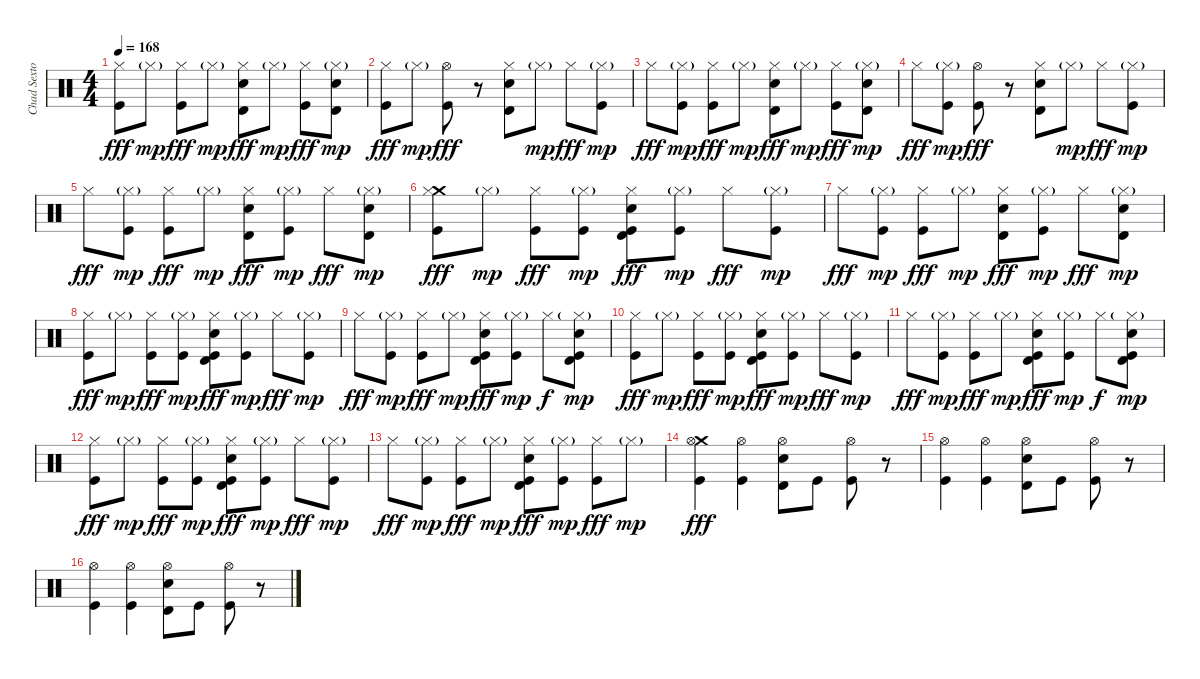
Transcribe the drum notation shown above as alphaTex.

\track ("Chad Sexton" "Chad Sexto") {instrument percussion}
\staff {score}
\articulation defaults
\ts (4 4)
\tempo 168
\clef neutral
\ks c
("Kick (hit)" "Hi-Hat (closed)").8{dy fff} "Hi-Hat (closed)"{g}.8{dy mp} ("Kick (hit)" "Hi-Hat (closed)").8{dy fff} "Hi-Hat (closed)"{g}.8{dy mp} ("Electric Snare (hit)" "Timbale high (hit)" "Hi-Hat (closed)").8{dy fff} "Hi-Hat (closed)"{g}.8{dy mp} ("Kick (hit)" "Hi-Hat (closed)").8{dy fff} ("Timbale high (hit)" "Electric Snare (hit)" "Hi-Hat (closed)"{g}).8{dy mp} |
("Kick (hit)" "Hi-Hat (closed)").8{dy fff} "Hi-Hat (closed)"{g}.8{dy mp} ("Kick (hit)" "Hi-Hat (open)").8{dy fff} r.8 ("Electric Snare (hit)" "Timbale high (hit)" "Hi-Hat (closed)").8 "Hi-Hat (closed)"{g}.8{dy mp} "Hi-Hat (closed)".8{dy fff} ("Kick (hit)" "Hi-Hat (closed)"{g}).8{dy mp} |
"Hi-Hat (closed)".8{dy fff} ("Kick (hit)" "Hi-Hat (closed)"{g}).8{dy mp} ("Kick (hit)" "Hi-Hat (closed)").8{dy fff} "Hi-Hat (closed)"{g}.8{dy mp} ("Electric Snare (hit)" "Timbale high (hit)" "Hi-Hat (closed)").8{dy fff} "Hi-Hat (closed)"{g}.8{dy mp} ("Kick (hit)" "Hi-Hat (closed)").8{dy fff} ("Timbale high (hit)" "Electric Snare (hit)" "Hi-Hat (closed)"{g}).8{dy mp} |
"Hi-Hat (closed)".8{dy fff} ("Kick (hit)" "Hi-Hat (closed)"{g}).8{dy mp} ("Kick (hit)" "Hi-Hat (open)").8{dy fff} r.8 ("Electric Snare (hit)" "Timbale high (hit)" "Hi-Hat (closed)").8 "Hi-Hat (closed)"{g}.8{dy mp} "Hi-Hat (closed)".8{dy fff} ("Kick (hit)" "Hi-Hat (closed)"{g}).8{dy mp} |
"Hi-Hat (closed)".8{dy fff} ("Kick (hit)" "Hi-Hat (closed)"{g}).8{dy mp} ("Kick (hit)" "Hi-Hat (closed)").8{dy fff} "Hi-Hat (closed)"{g}.8{dy mp} ("Electric Snare (hit)" "Timbale high (hit)" "Hi-Hat (closed)").8{dy fff} ("Kick (hit)" "Hi-Hat (closed)"{g}).8{dy mp} "Hi-Hat (closed)".8{dy fff} ("Timbale high (hit)" "Electric Snare (hit)" "Hi-Hat (closed)"{g}).8{dy mp} |
("Crash medium (hit)" "Kick (hit)" "Hi-Hat (closed)").8{dy fff} "Hi-Hat (closed)"{g}.8{dy mp} ("Kick (hit)" "Hi-Hat (closed)").8{dy fff} ("Kick (hit)" "Hi-Hat (closed)"{g}).8{dy mp} ("Timbale high (hit)" "Electric Snare (hit)" "Kick (hit)" "Hi-Hat (closed)").8{dy fff} ("Kick (hit)" "Hi-Hat (closed)"{g}).8{dy mp} "Hi-Hat (closed)".8{dy fff} ("Kick (hit)" "Hi-Hat (closed)"{g}).8{dy mp} |
"Hi-Hat (closed)".8{dy fff} ("Kick (hit)" "Hi-Hat (closed)"{g}).8{dy mp} ("Kick (hit)" "Hi-Hat (closed)").8{dy fff} "Hi-Hat (closed)"{g}.8{dy mp} ("Electric Snare (hit)" "Timbale high (hit)" "Hi-Hat (closed)").8{dy fff} ("Kick (hit)" "Hi-Hat (closed)"{g}).8{dy mp} "Hi-Hat (closed)".8{dy fff} ("Timbale high (hit)" "Electric Snare (hit)" "Hi-Hat (closed)"{g}).8{dy mp} |
("Kick (hit)" "Hi-Hat (closed)").8{dy fff} "Hi-Hat (closed)"{g}.8{dy mp} ("Kick (hit)" "Hi-Hat (closed)").8{dy fff} ("Kick (hit)" "Hi-Hat (closed)"{g}).8{dy mp} ("Timbale high (hit)" "Electric Snare (hit)" "Kick (hit)" "Hi-Hat (closed)").8{dy fff} ("Kick (hit)" "Hi-Hat (closed)"{g}).8{dy mp} "Hi-Hat (closed)".8{dy fff} ("Kick (hit)" "Hi-Hat (closed)"{g}).8{dy mp} |
"Hi-Hat (closed)".8{dy fff} ("Kick (hit)" "Hi-Hat (closed)"{g}).8{dy mp} ("Kick (hit)" "Hi-Hat (closed)").8{dy fff} "Hi-Hat (closed)"{g}.8{dy mp} ("Timbale high (hit)" "Electric Snare (hit)" "Kick (hit)" "Hi-Hat (closed)").8{dy fff} ("Kick (hit)" "Hi-Hat (closed)"{g}).8{dy mp} "Hi-Hat (closed)".8{dy f} ("Timbale high (hit)" "Electric Snare (hit)" "Kick (hit)" "Hi-Hat (closed)"{g}).8{dy mp} |
("Kick (hit)" "Hi-Hat (closed)").8{dy fff} "Hi-Hat (closed)"{g}.8{dy mp} ("Kick (hit)" "Hi-Hat (closed)").8{dy fff} ("Kick (hit)" "Hi-Hat (closed)"{g}).8{dy mp} ("Timbale high (hit)" "Electric Snare (hit)" "Kick (hit)" "Hi-Hat (closed)").8{dy fff} ("Kick (hit)" "Hi-Hat (closed)"{g}).8{dy mp} "Hi-Hat (closed)".8{dy fff} ("Kick (hit)" "Hi-Hat (closed)"{g}).8{dy mp} |
"Hi-Hat (closed)".8{dy fff} ("Kick (hit)" "Hi-Hat (closed)"{g}).8{dy mp} ("Kick (hit)" "Hi-Hat (closed)").8{dy fff} "Hi-Hat (closed)"{g}.8{dy mp} ("Timbale high (hit)" "Electric Snare (hit)" "Kick (hit)" "Hi-Hat (closed)").8{dy fff} ("Kick (hit)" "Hi-Hat (closed)"{g}).8{dy mp} "Hi-Hat (closed)".8{dy f} ("Timbale high (hit)" "Electric Snare (hit)" "Kick (hit)" "Hi-Hat (closed)"{g}).8{dy mp} |
("Kick (hit)" "Hi-Hat (closed)").8{dy fff} "Hi-Hat (closed)"{g}.8{dy mp} ("Kick (hit)" "Hi-Hat (closed)").8{dy fff} ("Kick (hit)" "Hi-Hat (closed)"{g}).8{dy mp} ("Timbale high (hit)" "Electric Snare (hit)" "Kick (hit)" "Hi-Hat (closed)").8{dy fff} ("Kick (hit)" "Hi-Hat (closed)"{g}).8{dy mp} "Hi-Hat (closed)".8{dy fff} ("Kick (hit)" "Hi-Hat (closed)"{g}).8{dy mp} |
"Hi-Hat (closed)".8{dy fff} ("Kick (hit)" "Hi-Hat (closed)"{g}).8{dy mp} ("Kick (hit)" "Hi-Hat (closed)").8{dy fff} "Hi-Hat (closed)"{g}.8{dy mp} ("Timbale high (hit)" "Electric Snare (hit)" "Kick (hit)" "Hi-Hat (closed)").8{dy fff} ("Kick (hit)" "Hi-Hat (closed)"{g}).8{dy mp} ("Kick (hit)" "Hi-Hat (closed)").8{dy fff} "Hi-Hat (closed)"{g}.8{dy mp} |
("Crash medium (hit)" "Hi-Hat (open)" "Kick (hit)").4{dy fff} ("Hi-Hat (open)" "Kick (hit)").4 ("Hi-Hat (open)" "Electric Snare (hit)" "Timbale high (hit)").8 "Kick (hit)".8 ("Hi-Hat (open)" "Kick (hit)").8 r.8 |
("Hi-Hat (open)" "Kick (hit)").4 ("Hi-Hat (open)" "Kick (hit)").4 ("Hi-Hat (open)" "Electric Snare (hit)" "Timbale high (hit)").8 "Kick (hit)".8 ("Hi-Hat (open)" "Kick (hit)").8 r.8 |
("Hi-Hat (open)" "Kick (hit)").4 ("Hi-Hat (open)" "Kick (hit)").4 ("Hi-Hat (open)" "Electric Snare (hit)" "Timbale high (hit)").8 "Kick (hit)".8 ("Hi-Hat (open)" "Kick (hit)").8 r.8
